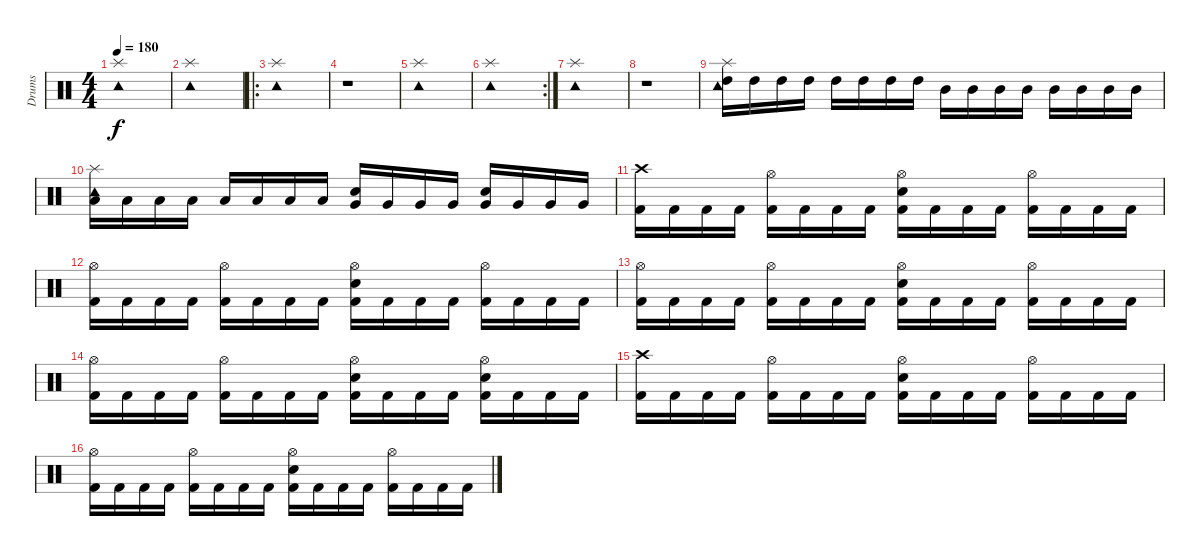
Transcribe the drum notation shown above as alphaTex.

\track ("Drums" "Drums") {instrument percussion}
\staff {score}
\articulation defaults
\ts (4 4)
\tempo 180
\clef neutral
\ks c
("Splash (hit)" "Tambourine (hit)").1{dy f} |
("Splash (hit)" "Tambourine (hit)").1 |
\ro
("Splash (hit)" "Tambourine (hit)").1 |
r.1 |
("Splash (hit)" "Tambourine (hit)").1 |
\rc 2
("Splash (hit)" "Tambourine (hit)").1 |
("Splash (hit)" "Tambourine (hit)").1 |
r.1 |
("Splash (hit)" "Tambourine (hit)" "High Tom (hit)").16 "High Tom (hit)".16 "High Tom (hit)".16 "High Tom (hit)".16 "High Tom (hit)".16 "High Tom (hit)".16 "High Tom (hit)".16 "High Tom (hit)".16 "Mid Tom (hit)".16 "Mid Tom (hit)".16 "Mid Tom (hit)".16 "Mid Tom (hit)".16 "Mid Tom (hit)".16 "Mid Tom (hit)".16 "Mid Tom (hit)".16 "Mid Tom (hit)".16 |
("Splash (hit)" "Tambourine (hit)" "Low Tom (hit)").16 "Low Tom (hit)".16 "Low Tom (hit)".16 "Low Tom (hit)".16 "Low Tom (hit)".16 "Low Tom (hit)".16 "Low Tom (hit)".16 "Low Tom (hit)".16 ("Electric Snare (hit)" "Very Low Tom (hit)").16 "Very Low Tom (hit)".16 "Very Low Tom (hit)".16 "Very Low Tom (hit)".16 ("Electric Snare (hit)" "Very Low Tom (hit)").16 "Very Low Tom (hit)".16 "Very Low Tom (hit)".16 "Very Low Tom (hit)".16 |
("Crash high (hit)" "Kick (hit) 2").16 "Kick (hit) 2".16 "Kick (hit) 2".16 "Kick (hit) 2".16 ("Hi-Hat (open)" "Kick (hit) 2").16 "Kick (hit) 2".16 "Kick (hit) 2".16 "Kick (hit) 2".16 ("Hi-Hat (open)" "Electric Snare (hit)" "Kick (hit) 2").16 "Kick (hit) 2".16 "Kick (hit) 2".16 "Kick (hit) 2".16 ("Hi-Hat (open)" "Kick (hit) 2").16 "Kick (hit) 2".16 "Kick (hit) 2".16 "Kick (hit) 2".16 |
("Hi-Hat (open)" "Kick (hit) 2").16 "Kick (hit) 2".16 "Kick (hit) 2".16 "Kick (hit) 2".16 ("Hi-Hat (open)" "Kick (hit) 2").16 "Kick (hit) 2".16 "Kick (hit) 2".16 "Kick (hit) 2".16 ("Hi-Hat (open)" "Electric Snare (hit)" "Kick (hit) 2").16 "Kick (hit) 2".16 "Kick (hit) 2".16 "Kick (hit) 2".16 ("Hi-Hat (open)" "Kick (hit) 2").16 "Kick (hit) 2".16 "Kick (hit) 2".16 "Kick (hit) 2".16 |
("Hi-Hat (open)" "Kick (hit) 2").16 "Kick (hit) 2".16 "Kick (hit) 2".16 "Kick (hit) 2".16 ("Hi-Hat (open)" "Kick (hit) 2").16 "Kick (hit) 2".16 "Kick (hit) 2".16 "Kick (hit) 2".16 ("Hi-Hat (open)" "Electric Snare (hit)" "Kick (hit) 2").16 "Kick (hit) 2".16 "Kick (hit) 2".16 "Kick (hit) 2".16 ("Hi-Hat (open)" "Kick (hit) 2").16 "Kick (hit) 2".16 "Kick (hit) 2".16 "Kick (hit) 2".16 |
("Hi-Hat (open)" "Kick (hit) 2").16 "Kick (hit) 2".16 "Kick (hit) 2".16 "Kick (hit) 2".16 ("Hi-Hat (open)" "Kick (hit) 2").16 "Kick (hit) 2".16 "Kick (hit) 2".16 "Kick (hit) 2".16 ("Hi-Hat (open)" "Electric Snare (hit)" "Kick (hit) 2").16 "Kick (hit) 2".16 "Kick (hit) 2".16 "Kick (hit) 2".16 ("Hi-Hat (open)" "Electric Snare (hit)" "Kick (hit) 2").16 "Kick (hit) 2".16 "Kick (hit) 2".16 "Kick (hit) 2".16 |
("Crash high (hit)" "Kick (hit) 2").16 "Kick (hit) 2".16 "Kick (hit) 2".16 "Kick (hit) 2".16 ("Hi-Hat (open)" "Kick (hit) 2").16 "Kick (hit) 2".16 "Kick (hit) 2".16 "Kick (hit) 2".16 ("Hi-Hat (open)" "Electric Snare (hit)" "Kick (hit) 2").16 "Kick (hit) 2".16 "Kick (hit) 2".16 "Kick (hit) 2".16 ("Hi-Hat (open)" "Kick (hit) 2").16 "Kick (hit) 2".16 "Kick (hit) 2".16 "Kick (hit) 2".16 |
("Hi-Hat (open)" "Kick (hit) 2").16 "Kick (hit) 2".16 "Kick (hit) 2".16 "Kick (hit) 2".16 ("Hi-Hat (open)" "Kick (hit) 2").16 "Kick (hit) 2".16 "Kick (hit) 2".16 "Kick (hit) 2".16 ("Hi-Hat (open)" "Electric Snare (hit)" "Kick (hit) 2").16 "Kick (hit) 2".16 "Kick (hit) 2".16 "Kick (hit) 2".16 ("Hi-Hat (open)" "Kick (hit) 2").16 "Kick (hit) 2".16 "Kick (hit) 2".16 "Kick (hit) 2".16
